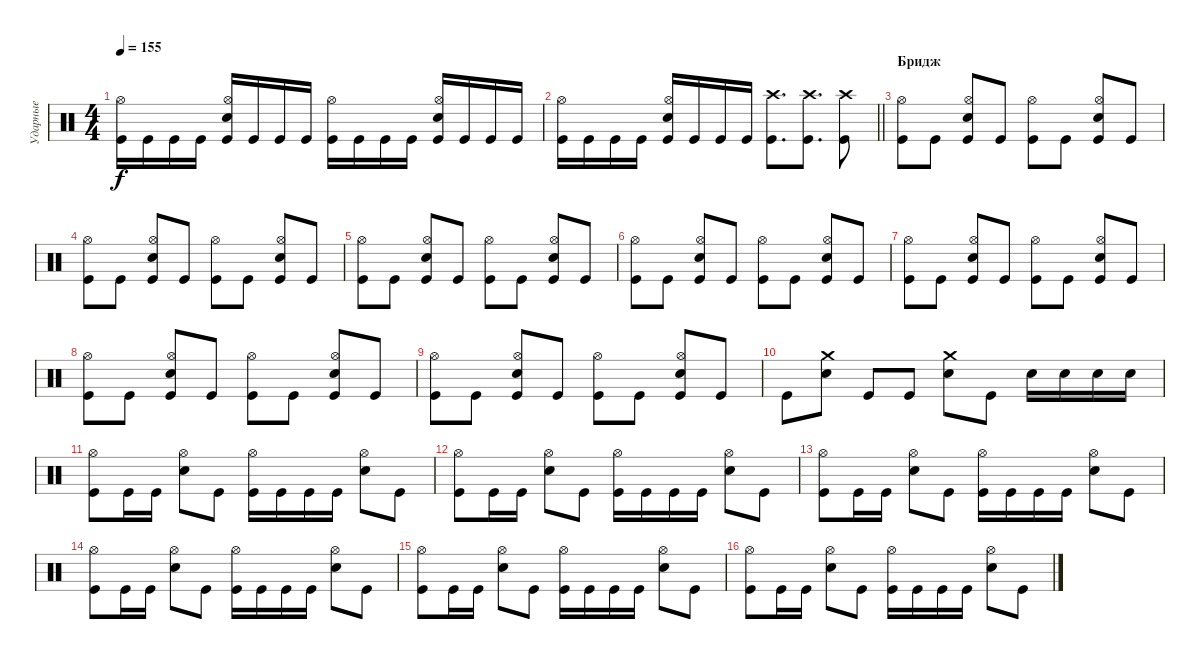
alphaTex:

\track ("Ударные" "Ударные") {instrument percussion}
\staff {score}
\articulation defaults
\ts (4 4)
\tempo 155
\clef neutral
\ks c
("Kick (hit)" "Hi-Hat (open)").16{dy f} "Kick (hit)".16 "Kick (hit)".16 "Kick (hit)".16 ("Kick (hit)" "Snare (hit) 2" "Hi-Hat (open)").16 "Kick (hit)".16 "Kick (hit)".16 "Kick (hit)".16 ("Kick (hit)" "Hi-Hat (open)").16 "Kick (hit)".16 "Kick (hit)".16 "Kick (hit)".16 ("Kick (hit)" "Snare (hit) 2" "Hi-Hat (open)").16 "Kick (hit)".16 "Kick (hit)".16 "Kick (hit)".16 |
\barLineRight lightlight
("Kick (hit)" "Hi-Hat (open)").16 "Kick (hit)".16 "Kick (hit)".16 "Kick (hit)".16 ("Kick (hit)" "Snare (hit) 2" "Hi-Hat (open)").16 "Kick (hit)".16 "Kick (hit)".16 "Kick (hit)".16 ("Kick (hit)" "Crash high (hit)").8{d} ("Kick (hit)" "Crash high (hit)").8{d} ("Kick (hit)" "Crash high (hit)").8 |
\section ("" "Бридж")
("Kick (hit)" "Hi-Hat (open)").8 "Kick (hit)".8 ("Kick (hit)" "Snare (hit) 2" "Hi-Hat (open)").8 "Kick (hit)".8 ("Kick (hit)" "Hi-Hat (open)").8 "Kick (hit)".8 ("Kick (hit)" "Snare (hit) 2" "Hi-Hat (open)").8 "Kick (hit)".8 |
("Kick (hit)" "Hi-Hat (open)").8 "Kick (hit)".8 ("Kick (hit)" "Snare (hit) 2" "Hi-Hat (open)").8 "Kick (hit)".8 ("Kick (hit)" "Hi-Hat (open)").8 "Kick (hit)".8 ("Kick (hit)" "Snare (hit) 2" "Hi-Hat (open)").8 "Kick (hit)".8 |
("Kick (hit)" "Hi-Hat (open)").8 "Kick (hit)".8 ("Kick (hit)" "Snare (hit) 2" "Hi-Hat (open)").8 "Kick (hit)".8 ("Kick (hit)" "Hi-Hat (open)").8 "Kick (hit)".8 ("Kick (hit)" "Snare (hit) 2" "Hi-Hat (open)").8 "Kick (hit)".8 |
("Kick (hit)" "Hi-Hat (open)").8 "Kick (hit)".8 ("Kick (hit)" "Snare (hit) 2" "Hi-Hat (open)").8 "Kick (hit)".8 ("Kick (hit)" "Hi-Hat (open)").8 "Kick (hit)".8 ("Kick (hit)" "Snare (hit) 2" "Hi-Hat (open)").8 "Kick (hit)".8 |
("Kick (hit)" "Hi-Hat (open)").8 "Kick (hit)".8 ("Kick (hit)" "Snare (hit) 2" "Hi-Hat (open)").8 "Kick (hit)".8 ("Kick (hit)" "Hi-Hat (open)").8 "Kick (hit)".8 ("Kick (hit)" "Snare (hit) 2" "Hi-Hat (open)").8 "Kick (hit)".8 |
("Kick (hit)" "Hi-Hat (open)").8 "Kick (hit)".8 ("Kick (hit)" "Snare (hit) 2" "Hi-Hat (open)").8 "Kick (hit)".8 ("Kick (hit)" "Hi-Hat (open)").8 "Kick (hit)".8 ("Kick (hit)" "Snare (hit) 2" "Hi-Hat (open)").8 "Kick (hit)".8 |
("Kick (hit)" "Hi-Hat (open)").8 "Kick (hit)".8 ("Kick (hit)" "Snare (hit) 2" "Hi-Hat (open)").8 "Kick (hit)".8 ("Kick (hit)" "Hi-Hat (open)").8 "Kick (hit)".8 ("Kick (hit)" "Snare (hit) 2" "Hi-Hat (open)").8 "Kick (hit)".8 |
"Kick (hit)".8 ("Snare (hit) 2" "Crash medium (hit)").8 "Kick (hit)".8 "Kick (hit)".8 ("Snare (hit) 2" "Crash medium (hit)").8 "Kick (hit)".8 "Snare (hit) 2".16 "Snare (hit) 2".16 "Snare (hit) 2".16 "Snare (hit) 2".16 |
("Kick (hit)" "Hi-Hat (open)").8 "Kick (hit)".16 "Kick (hit)".16 ("Snare (hit) 2" "Hi-Hat (open)").8 "Kick (hit)".8 ("Kick (hit)" "Hi-Hat (open)").16 "Kick (hit)".16 "Kick (hit)".16 "Kick (hit)".16 ("Snare (hit) 2" "Hi-Hat (open)").8 "Kick (hit)".8 |
("Kick (hit)" "Hi-Hat (open)").8 "Kick (hit)".16 "Kick (hit)".16 ("Snare (hit) 2" "Hi-Hat (open)").8 "Kick (hit)".8 ("Kick (hit)" "Hi-Hat (open)").16 "Kick (hit)".16 "Kick (hit)".16 "Kick (hit)".16 ("Snare (hit) 2" "Hi-Hat (open)").8 "Kick (hit)".8 |
("Kick (hit)" "Hi-Hat (open)").8 "Kick (hit)".16 "Kick (hit)".16 ("Snare (hit) 2" "Hi-Hat (open)").8 "Kick (hit)".8 ("Kick (hit)" "Hi-Hat (open)").16 "Kick (hit)".16 "Kick (hit)".16 "Kick (hit)".16 ("Snare (hit) 2" "Hi-Hat (open)").8 "Kick (hit)".8 |
("Kick (hit)" "Hi-Hat (open)").8 "Kick (hit)".16 "Kick (hit)".16 ("Snare (hit) 2" "Hi-Hat (open)").8 "Kick (hit)".8 ("Kick (hit)" "Hi-Hat (open)").16 "Kick (hit)".16 "Kick (hit)".16 "Kick (hit)".16 ("Snare (hit) 2" "Hi-Hat (open)").8 "Kick (hit)".8 |
("Kick (hit)" "Hi-Hat (open)").8 "Kick (hit)".16 "Kick (hit)".16 ("Snare (hit) 2" "Hi-Hat (open)").8 "Kick (hit)".8 ("Kick (hit)" "Hi-Hat (open)").16 "Kick (hit)".16 "Kick (hit)".16 "Kick (hit)".16 ("Snare (hit) 2" "Hi-Hat (open)").8 "Kick (hit)".8 |
("Kick (hit)" "Hi-Hat (open)").8 "Kick (hit)".16 "Kick (hit)".16 ("Snare (hit) 2" "Hi-Hat (open)").8 "Kick (hit)".8 ("Kick (hit)" "Hi-Hat (open)").16 "Kick (hit)".16 "Kick (hit)".16 "Kick (hit)".16 ("Snare (hit) 2" "Hi-Hat (open)").8 "Kick (hit)".8
